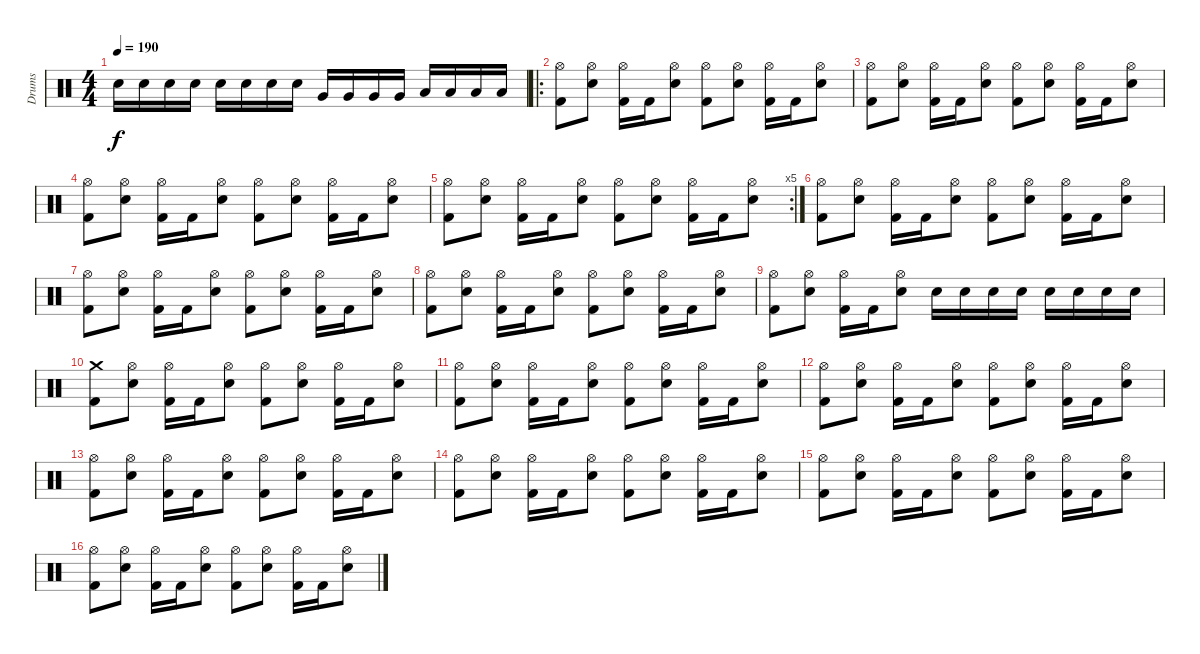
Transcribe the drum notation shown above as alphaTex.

\track ("Drums" "Drums") {instrument percussion}
\staff {score}
\articulation defaults
\ts (4 4)
\tempo 190
\clef neutral
\ks c "Snare (hit) 2".16{dy f} "Snare (hit) 2".16 "Snare (hit) 2".16 "Snare (hit) 2".16 "Snare (hit) 2".16 "Snare (hit) 2".16 "Snare (hit) 2".16 "Snare (hit) 2".16 "Very Low Tom (hit)".16 "Very Low Tom (hit)".16 "Very Low Tom (hit)".16 "Very Low Tom (hit)".16 "Low Tom (hit)".16 "Low Tom (hit)".16 "Low Tom (hit)".16 "Low Tom (hit)".16
|
\ro
("Hi-Hat (open)" "Kick (hit) 2").8 ("Hi-Hat (open)" "Snare (hit) 2").8 ("Hi-Hat (open)" "Kick (hit) 2").16 "Kick (hit) 2".16 ("Hi-Hat (open)" "Snare (hit) 2").8 ("Hi-Hat (open)" "Kick (hit) 2").8 ("Hi-Hat (open)" "Snare (hit) 2").8 ("Hi-Hat (open)" "Kick (hit) 2").16 "Kick (hit) 2".16 ("Hi-Hat (open)" "Snare (hit) 2").8 |
("Hi-Hat (open)" "Kick (hit) 2").8 ("Hi-Hat (open)" "Snare (hit) 2").8 ("Hi-Hat (open)" "Kick (hit) 2").16 "Kick (hit) 2".16 ("Hi-Hat (open)" "Snare (hit) 2").8 ("Hi-Hat (open)" "Kick (hit) 2").8 ("Hi-Hat (open)" "Snare (hit) 2").8 ("Hi-Hat (open)" "Kick (hit) 2").16 "Kick (hit) 2".16 ("Hi-Hat (open)" "Snare (hit) 2").8 |
("Hi-Hat (open)" "Kick (hit) 2").8 ("Hi-Hat (open)" "Snare (hit) 2").8 ("Hi-Hat (open)" "Kick (hit) 2").16 "Kick (hit) 2".16 ("Hi-Hat (open)" "Snare (hit) 2").8 ("Hi-Hat (open)" "Kick (hit) 2").8 ("Hi-Hat (open)" "Snare (hit) 2").8 ("Hi-Hat (open)" "Kick (hit) 2").16 "Kick (hit) 2".16 ("Hi-Hat (open)" "Snare (hit) 2").8 |
\rc 5
("Hi-Hat (open)" "Kick (hit) 2").8 ("Hi-Hat (open)" "Snare (hit) 2").8 ("Hi-Hat (open)" "Kick (hit) 2").16 "Kick (hit) 2".16 ("Hi-Hat (open)" "Snare (hit) 2").8 ("Hi-Hat (open)" "Kick (hit) 2").8 ("Hi-Hat (open)" "Snare (hit) 2").8 ("Hi-Hat (open)" "Kick (hit) 2").16 "Kick (hit) 2".16 ("Hi-Hat (open)" "Snare (hit) 2").8 |
("Hi-Hat (open)" "Kick (hit) 2").8 ("Hi-Hat (open)" "Snare (hit) 2").8 ("Hi-Hat (open)" "Kick (hit) 2").16 "Kick (hit) 2".16 ("Hi-Hat (open)" "Snare (hit) 2").8 ("Hi-Hat (open)" "Kick (hit) 2").8 ("Hi-Hat (open)" "Snare (hit) 2").8 ("Hi-Hat (open)" "Kick (hit) 2").16 "Kick (hit) 2".16 ("Hi-Hat (open)" "Snare (hit) 2").8 |
("Hi-Hat (open)" "Kick (hit) 2").8 ("Hi-Hat (open)" "Snare (hit) 2").8 ("Hi-Hat (open)" "Kick (hit) 2").16 "Kick (hit) 2".16 ("Hi-Hat (open)" "Snare (hit) 2").8 ("Hi-Hat (open)" "Kick (hit) 2").8 ("Hi-Hat (open)" "Snare (hit) 2").8 ("Hi-Hat (open)" "Kick (hit) 2").16 "Kick (hit) 2".16 ("Hi-Hat (open)" "Snare (hit) 2").8 |
("Hi-Hat (open)" "Kick (hit) 2").8 ("Hi-Hat (open)" "Snare (hit) 2").8 ("Hi-Hat (open)" "Kick (hit) 2").16 "Kick (hit) 2".16 ("Hi-Hat (open)" "Snare (hit) 2").8 ("Hi-Hat (open)" "Kick (hit) 2").8 ("Hi-Hat (open)" "Snare (hit) 2").8 ("Hi-Hat (open)" "Kick (hit) 2").16 "Kick (hit) 2".16 ("Hi-Hat (open)" "Snare (hit) 2").8 |
("Hi-Hat (open)" "Kick (hit) 2").8 ("Hi-Hat (open)" "Snare (hit) 2").8 ("Hi-Hat (open)" "Kick (hit) 2").16 "Kick (hit) 2".16 ("Hi-Hat (open)" "Snare (hit) 2").8 "Snare (hit) 2".16 "Snare (hit) 2".16 "Snare (hit) 2".16 "Snare (hit) 2".16 "Snare (hit) 2".16 "Snare (hit) 2".16 "Snare (hit) 2".16 "Snare (hit) 2".16 |
("Crash medium (hit)" "Kick (hit) 2").8 ("Hi-Hat (open)" "Snare (hit) 2").8 ("Hi-Hat (open)" "Kick (hit) 2").16 "Kick (hit) 2".16 ("Hi-Hat (open)" "Snare (hit) 2").8 ("Hi-Hat (open)" "Kick (hit) 2").8 ("Hi-Hat (open)" "Snare (hit) 2").8 ("Hi-Hat (open)" "Kick (hit) 2").16 "Kick (hit) 2".16 ("Hi-Hat (open)" "Snare (hit) 2").8 |
("Hi-Hat (open)" "Kick (hit) 2").8 ("Hi-Hat (open)" "Snare (hit) 2").8 ("Hi-Hat (open)" "Kick (hit) 2").16 "Kick (hit) 2".16 ("Hi-Hat (open)" "Snare (hit) 2").8 ("Hi-Hat (open)" "Kick (hit) 2").8 ("Hi-Hat (open)" "Snare (hit) 2").8 ("Hi-Hat (open)" "Kick (hit) 2").16 "Kick (hit) 2".16 ("Hi-Hat (open)" "Snare (hit) 2").8 |
("Hi-Hat (open)" "Kick (hit) 2").8 ("Hi-Hat (open)" "Snare (hit) 2").8 ("Hi-Hat (open)" "Kick (hit) 2").16 "Kick (hit) 2".16 ("Hi-Hat (open)" "Snare (hit) 2").8 ("Hi-Hat (open)" "Kick (hit) 2").8 ("Hi-Hat (open)" "Snare (hit) 2").8 ("Hi-Hat (open)" "Kick (hit) 2").16 "Kick (hit) 2".16 ("Hi-Hat (open)" "Snare (hit) 2").8 |
("Hi-Hat (open)" "Kick (hit) 2").8 ("Hi-Hat (open)" "Snare (hit) 2").8 ("Hi-Hat (open)" "Kick (hit) 2").16 "Kick (hit) 2".16 ("Hi-Hat (open)" "Snare (hit) 2").8 ("Hi-Hat (open)" "Kick (hit) 2").8 ("Hi-Hat (open)" "Snare (hit) 2").8 ("Hi-Hat (open)" "Kick (hit) 2").16 "Kick (hit) 2".16 ("Hi-Hat (open)" "Snare (hit) 2").8 |
("Hi-Hat (open)" "Kick (hit) 2").8 ("Hi-Hat (open)" "Snare (hit) 2").8 ("Hi-Hat (open)" "Kick (hit) 2").16 "Kick (hit) 2".16 ("Hi-Hat (open)" "Snare (hit) 2").8 ("Hi-Hat (open)" "Kick (hit) 2").8 ("Hi-Hat (open)" "Snare (hit) 2").8 ("Hi-Hat (open)" "Kick (hit) 2").16 "Kick (hit) 2".16 ("Hi-Hat (open)" "Snare (hit) 2").8 |
("Hi-Hat (open)" "Kick (hit) 2").8 ("Hi-Hat (open)" "Snare (hit) 2").8 ("Hi-Hat (open)" "Kick (hit) 2").16 "Kick (hit) 2".16 ("Hi-Hat (open)" "Snare (hit) 2").8 ("Hi-Hat (open)" "Kick (hit) 2").8 ("Hi-Hat (open)" "Snare (hit) 2").8 ("Hi-Hat (open)" "Kick (hit) 2").16 "Kick (hit) 2".16 ("Hi-Hat (open)" "Snare (hit) 2").8 |
("Hi-Hat (open)" "Kick (hit) 2").8 ("Hi-Hat (open)" "Snare (hit) 2").8 ("Hi-Hat (open)" "Kick (hit) 2").16 "Kick (hit) 2".16 ("Hi-Hat (open)" "Snare (hit) 2").8 ("Hi-Hat (open)" "Kick (hit) 2").8 ("Hi-Hat (open)" "Snare (hit) 2").8 ("Hi-Hat (open)" "Kick (hit) 2").16 "Kick (hit) 2".16 ("Hi-Hat (open)" "Snare (hit) 2").8
